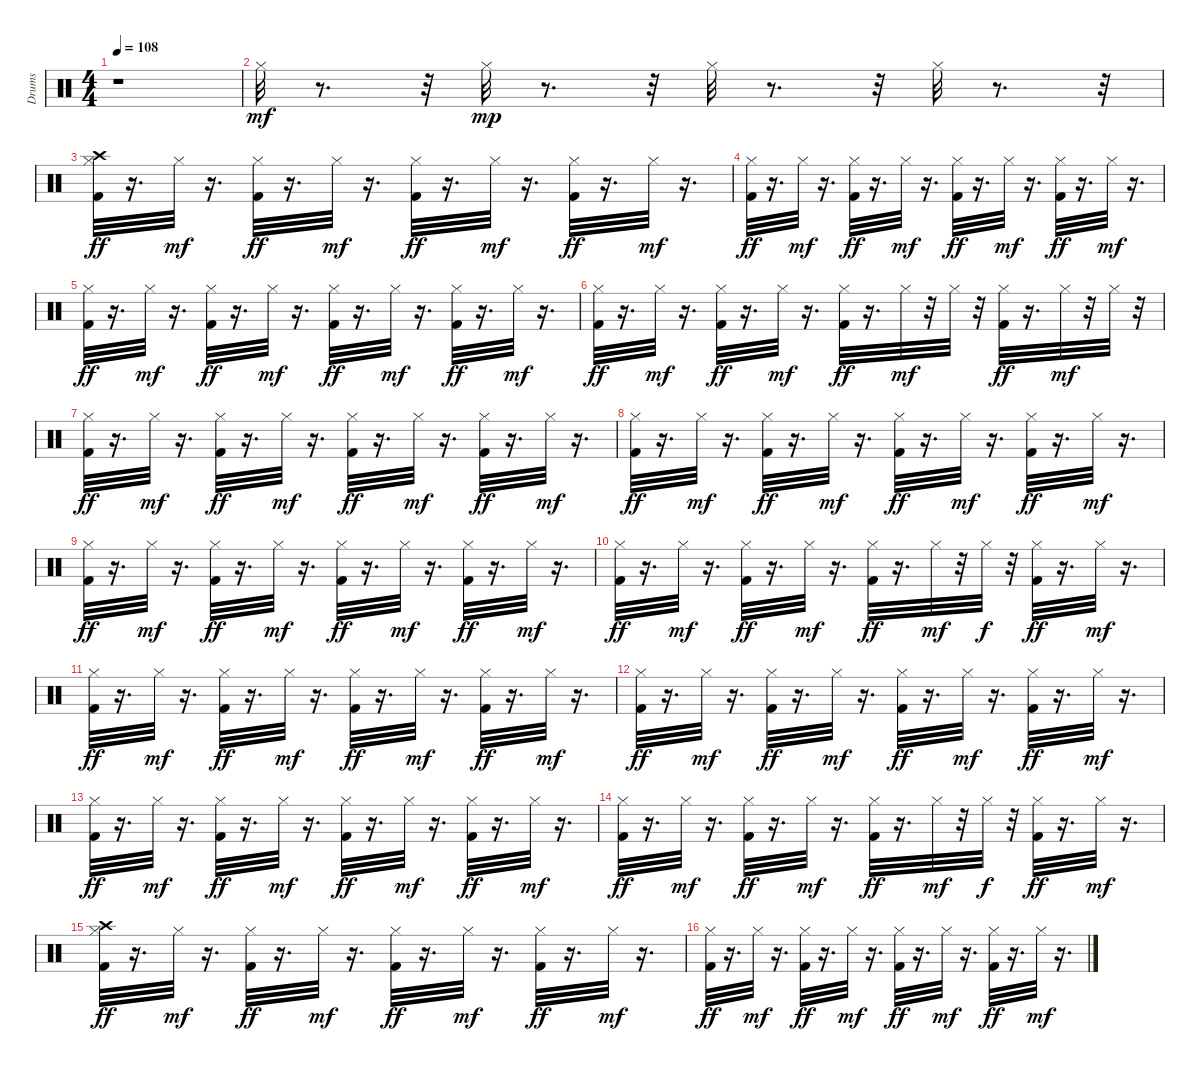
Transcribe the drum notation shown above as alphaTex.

\track ("Drums               " "Drums     ") {instrument percussion}
\staff {score}
\articulation defaults
\ts (4 4)
\tempo 108
\clef neutral
\ks c
r.1{dy mf} |
"Hi-Hat (closed)".32 r.8{d} r.32 "Hi-Hat (closed)".32{dy mp} r.8{d} r.32 "Hi-Hat (closed)".32 r.8{d} r.32 "Hi-Hat (closed)".32 r.8{d} r.32 |
("Hi-Hat (closed)" "Kick (hit) 2" "Crash high (hit)").32{dy ff} r.16{d} "Hi-Hat (closed)".32{dy mf} r.16{d} ("Kick (hit) 2" "Hi-Hat (closed)").32{dy ff} r.16{d} "Hi-Hat (closed)".32{dy mf} r.16{d} ("Kick (hit) 2" "Hi-Hat (closed)").32{dy ff} r.16{d} "Hi-Hat (closed)".32{dy mf} r.16{d} ("Kick (hit) 2" "Hi-Hat (closed)").32{dy ff} r.16{d} "Hi-Hat (closed)".32{dy mf} r.16{d} |
("Kick (hit) 2" "Hi-Hat (closed)").32{dy ff} r.16{d} "Hi-Hat (closed)".32{dy mf} r.16{d} ("Kick (hit) 2" "Hi-Hat (closed)").32{dy ff} r.16{d} "Hi-Hat (closed)".32{dy mf} r.16{d} ("Kick (hit) 2" "Hi-Hat (closed)").32{dy ff} r.16{d} "Hi-Hat (closed)".32{dy mf} r.16{d} ("Kick (hit) 2" "Hi-Hat (closed)").32{dy ff} r.16{d} "Hi-Hat (closed)".32{dy mf} r.16{d} |
("Kick (hit) 2" "Hi-Hat (closed)").32{dy ff} r.16{d} "Hi-Hat (closed)".32{dy mf} r.16{d} ("Kick (hit) 2" "Hi-Hat (closed)").32{dy ff} r.16{d} "Hi-Hat (closed)".32{dy mf} r.16{d} ("Kick (hit) 2" "Hi-Hat (closed)").32{dy ff} r.16{d} "Hi-Hat (closed)".32{dy mf} r.16{d} ("Hi-Hat (closed)" "Kick (hit) 2").32{dy ff} r.16{d} "Hi-Hat (closed)".32{dy mf} r.16{d} |
("Kick (hit) 2" "Hi-Hat (closed)").32{dy ff} r.16{d} "Hi-Hat (closed)".32{dy mf} r.16{d} ("Kick (hit) 2" "Hi-Hat (closed)").32{dy ff} r.16{d} "Hi-Hat (closed)".32{dy mf} r.16{d} ("Kick (hit) 2" "Hi-Hat (closed)").32{dy ff} r.16{d} "Hi-Hat (closed)".32{dy mf} r.32 "Hi-Hat (closed)".32 r.32 ("Kick (hit) 2" "Hi-Hat (closed)").32{dy ff} r.16{d} "Hi-Hat (closed)".32{dy mf} r.32 "Hi-Hat (closed)".32 r.32 |
("Kick (hit) 2" "Hi-Hat (closed)").32{dy ff} r.16{d} "Hi-Hat (closed)".32{dy mf} r.16{d} ("Kick (hit) 2" "Hi-Hat (closed)").32{dy ff} r.16{d} "Hi-Hat (closed)".32{dy mf} r.16{d} ("Kick (hit) 2" "Hi-Hat (closed)").32{dy ff} r.16{d} "Hi-Hat (closed)".32{dy mf} r.16{d} ("Kick (hit) 2" "Hi-Hat (closed)").32{dy ff} r.16{d} "Hi-Hat (closed)".32{dy mf} r.16{d} |
("Kick (hit) 2" "Hi-Hat (closed)").32{dy ff} r.16{d} "Hi-Hat (closed)".32{dy mf} r.16{d} ("Kick (hit) 2" "Hi-Hat (closed)").32{dy ff} r.16{d} "Hi-Hat (closed)".32{dy mf} r.16{d} ("Hi-Hat (closed)" "Kick (hit) 2").32{dy ff} r.16{d} "Hi-Hat (closed)".32{dy mf} r.16{d} ("Kick (hit) 2" "Hi-Hat (closed)").32{dy ff} r.16{d} "Hi-Hat (closed)".32{dy mf} r.16{d} |
("Kick (hit) 2" "Hi-Hat (closed)").32{dy ff} r.16{d} "Hi-Hat (closed)".32{dy mf} r.16{d} ("Kick (hit) 2" "Hi-Hat (closed)").32{dy ff} r.16{d} "Hi-Hat (closed)".32{dy mf} r.16{d} ("Kick (hit) 2" "Hi-Hat (closed)").32{dy ff} r.16{d} "Hi-Hat (closed)".32{dy mf} r.16{d} ("Kick (hit) 2" "Hi-Hat (closed)").32{dy ff} r.16{d} "Hi-Hat (closed)".32{dy mf} r.16{d} |
("Kick (hit) 2" "Hi-Hat (closed)").32{dy ff} r.16{d} "Hi-Hat (closed)".32{dy mf} r.16{d} ("Kick (hit) 2" "Hi-Hat (closed)").32{dy ff} r.16{d} "Hi-Hat (closed)".32{dy mf} r.16{d} ("Kick (hit) 2" "Hi-Hat (closed)").32{dy ff} r.16{d} "Hi-Hat (closed)".32{dy mf} r.32 "Hi-Hat (closed)".32{dy f} r.32 ("Kick (hit) 2" "Hi-Hat (closed)").32{dy ff} r.16{d} "Hi-Hat (closed)".32{dy mf} r.16{d} |
("Kick (hit) 2" "Hi-Hat (closed)").32{dy ff} r.16{d} "Hi-Hat (closed)".32{dy mf} r.16{d} ("Hi-Hat (closed)" "Kick (hit) 2").32{dy ff} r.16{d} "Hi-Hat (closed)".32{dy mf} r.16{d} ("Kick (hit) 2" "Hi-Hat (closed)").32{dy ff} r.16{d} "Hi-Hat (closed)".32{dy mf} r.16{d} ("Kick (hit) 2" "Hi-Hat (closed)").32{dy ff} r.16{d} "Hi-Hat (closed)".32{dy mf} r.16{d} |
("Kick (hit) 2" "Hi-Hat (closed)").32{dy ff} r.16{d} "Hi-Hat (closed)".32{dy mf} r.16{d} ("Kick (hit) 2" "Hi-Hat (closed)").32{dy ff} r.16{d} "Hi-Hat (closed)".32{dy mf} r.16{d} ("Kick (hit) 2" "Hi-Hat (closed)").32{dy ff} r.16{d} "Hi-Hat (closed)".32{dy mf} r.16{d} ("Kick (hit) 2" "Hi-Hat (closed)").32{dy ff} r.16{d} "Hi-Hat (closed)".32{dy mf} r.16{d} |
("Kick (hit) 2" "Hi-Hat (closed)").32{dy ff} r.16{d} "Hi-Hat (closed)".32{dy mf} r.16{d} ("Kick (hit) 2" "Hi-Hat (closed)").32{dy ff} r.16{d} "Hi-Hat (closed)".32{dy mf} r.16{d} ("Kick (hit) 2" "Hi-Hat (closed)").32{dy ff} r.16{d} "Hi-Hat (closed)".32{dy mf} r.16{d} ("Kick (hit) 2" "Hi-Hat (closed)").32{dy ff} r.16{d} "Hi-Hat (closed)".32{dy mf} r.16{d} |
("Hi-Hat (closed)" "Kick (hit) 2").32{dy ff} r.16{d} "Hi-Hat (closed)".32{dy mf} r.16{d} ("Kick (hit) 2" "Hi-Hat (closed)").32{dy ff} r.16{d} "Hi-Hat (closed)".32{dy mf} r.16{d} ("Kick (hit) 2" "Hi-Hat (closed)").32{dy ff} r.16{d} "Hi-Hat (closed)".32{dy mf} r.32 "Hi-Hat (closed)".32{dy f} r.32 ("Kick (hit) 2" "Hi-Hat (closed)").32{dy ff} r.16{d} "Hi-Hat (closed)".32{dy mf} r.16{d} |
("Kick (hit) 2" "Hi-Hat (closed)" "Crash high (hit)").32{dy ff} r.16{d} "Hi-Hat (closed)".32{dy mf} r.16{d} ("Kick (hit) 2" "Hi-Hat (closed)").32{dy ff} r.16{d} "Hi-Hat (closed)".32{dy mf} r.16{d} ("Kick (hit) 2" "Hi-Hat (closed)").32{dy ff} r.16{d} "Hi-Hat (closed)".32{dy mf} r.16{d} ("Kick (hit) 2" "Hi-Hat (closed)").32{dy ff} r.16{d} "Hi-Hat (closed)".32{dy mf} r.16{d} |
("Kick (hit) 2" "Hi-Hat (closed)").32{dy ff} r.16{d} "Hi-Hat (closed)".32{dy mf} r.16{d} ("Kick (hit) 2" "Hi-Hat (closed)").32{dy ff} r.16{d} "Hi-Hat (closed)".32{dy mf} r.16{d} ("Kick (hit) 2" "Hi-Hat (closed)").32{dy ff} r.16{d} "Hi-Hat (closed)".32{dy mf} r.16{d} ("Hi-Hat (closed)" "Kick (hit) 2").32{dy ff} r.16{d} "Hi-Hat (closed)".32{dy mf} r.16{d}
